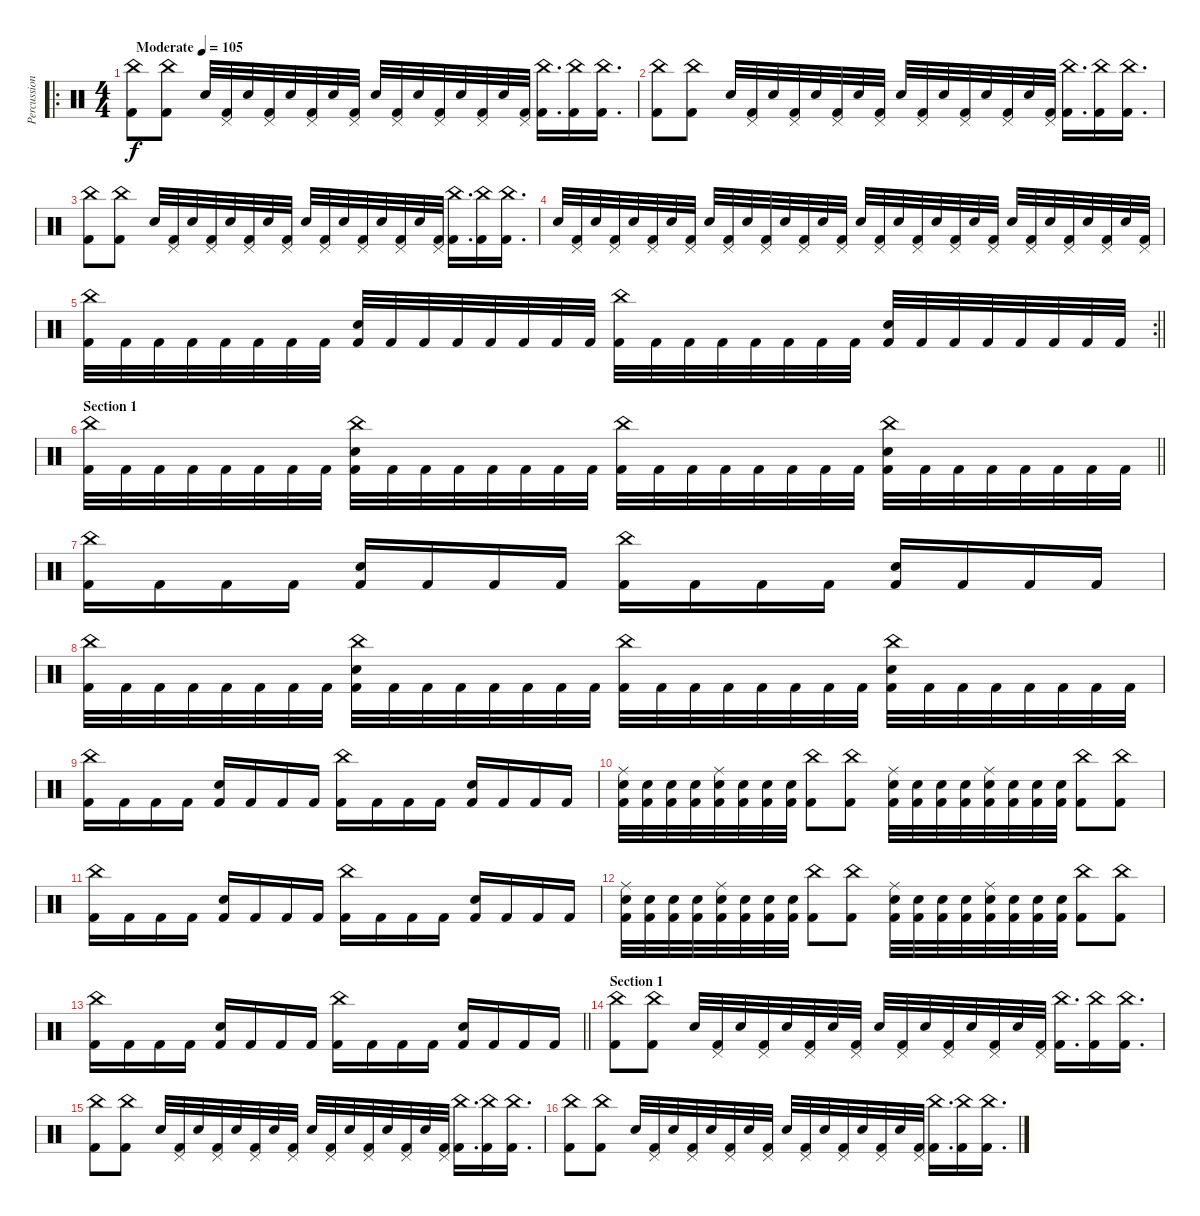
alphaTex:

\track ("Percussions" "Percussion") {instrument percussion}
\staff {score}
\articulation defaults
\ro
\ts (4 4)
\tempo (105 "Moderate")
\clef neutral
\ks c
("China (hit)" "Kick (hit) 2").8{dy f} ("China (hit)" "Kick (hit) 2").8 "Electric Snare (hit)".32 ("Pedal Hi-Hat (hit)" "Kick (hit) 2").32 "Electric Snare (hit)".32 ("Pedal Hi-Hat (hit)" "Kick (hit) 2").32 "Electric Snare (hit)".32 ("Pedal Hi-Hat (hit)" "Kick (hit) 2").32 "Electric Snare (hit)".32 ("Pedal Hi-Hat (hit)" "Kick (hit) 2").32 "Electric Snare (hit)".32 ("Pedal Hi-Hat (hit)" "Kick (hit) 2").32 "Electric Snare (hit)".32 ("Pedal Hi-Hat (hit)" "Kick (hit) 2").32 "Electric Snare (hit)".32 ("Pedal Hi-Hat (hit)" "Kick (hit) 2").32 "Electric Snare (hit)".32 ("Pedal Hi-Hat (hit)" "Kick (hit) 2").32 ("China (hit)" "Kick (hit) 2").16{d} ("China (hit)" "Kick (hit) 2").16 ("China (hit)" "Kick (hit) 2").16{d} |
("China (hit)" "Kick (hit) 2").8 ("China (hit)" "Kick (hit) 2").8 "Electric Snare (hit)".32 ("Pedal Hi-Hat (hit)" "Kick (hit) 2").32 "Electric Snare (hit)".32 ("Pedal Hi-Hat (hit)" "Kick (hit) 2").32 "Electric Snare (hit)".32 ("Pedal Hi-Hat (hit)" "Kick (hit) 2").32 "Electric Snare (hit)".32 ("Pedal Hi-Hat (hit)" "Kick (hit) 2").32 "Electric Snare (hit)".32 ("Pedal Hi-Hat (hit)" "Kick (hit) 2").32 "Electric Snare (hit)".32 ("Pedal Hi-Hat (hit)" "Kick (hit) 2").32 "Electric Snare (hit)".32 ("Pedal Hi-Hat (hit)" "Kick (hit) 2").32 "Electric Snare (hit)".32 ("Pedal Hi-Hat (hit)" "Kick (hit) 2").32 ("China (hit)" "Kick (hit) 2").16{d} ("China (hit)" "Kick (hit) 2").16 ("China (hit)" "Kick (hit) 2").16{d} |
("China (hit)" "Kick (hit) 2").8 ("China (hit)" "Kick (hit) 2").8 "Electric Snare (hit)".32 ("Pedal Hi-Hat (hit)" "Kick (hit) 2").32 "Electric Snare (hit)".32 ("Pedal Hi-Hat (hit)" "Kick (hit) 2").32 "Electric Snare (hit)".32 ("Pedal Hi-Hat (hit)" "Kick (hit) 2").32 "Electric Snare (hit)".32 ("Pedal Hi-Hat (hit)" "Kick (hit) 2").32 "Electric Snare (hit)".32 ("Pedal Hi-Hat (hit)" "Kick (hit) 2").32 "Electric Snare (hit)".32 ("Pedal Hi-Hat (hit)" "Kick (hit) 2").32 "Electric Snare (hit)".32 ("Pedal Hi-Hat (hit)" "Kick (hit) 2").32 "Electric Snare (hit)".32 ("Pedal Hi-Hat (hit)" "Kick (hit) 2").32 ("China (hit)" "Kick (hit) 2").16{d} ("China (hit)" "Kick (hit) 2").16 ("China (hit)" "Kick (hit) 2").16{d} |
"Electric Snare (hit)".32 ("Pedal Hi-Hat (hit)" "Kick (hit) 2").32 "Electric Snare (hit)".32 ("Pedal Hi-Hat (hit)" "Kick (hit) 2").32 "Electric Snare (hit)".32 ("Pedal Hi-Hat (hit)" "Kick (hit) 2").32 "Electric Snare (hit)".32 ("Pedal Hi-Hat (hit)" "Kick (hit) 2").32 "Electric Snare (hit)".32 ("Pedal Hi-Hat (hit)" "Kick (hit) 2").32 "Electric Snare (hit)".32 ("Pedal Hi-Hat (hit)" "Kick (hit) 2").32 "Electric Snare (hit)".32 ("Pedal Hi-Hat (hit)" "Kick (hit) 2").32 "Electric Snare (hit)".32 ("Pedal Hi-Hat (hit)" "Kick (hit) 2").32 "Electric Snare (hit)".32 ("Pedal Hi-Hat (hit)" "Kick (hit) 2").32 "Electric Snare (hit)".32 ("Pedal Hi-Hat (hit)" "Kick (hit) 2").32 "Electric Snare (hit)".32 ("Pedal Hi-Hat (hit)" "Kick (hit) 2").32 "Electric Snare (hit)".32 ("Pedal Hi-Hat (hit)" "Kick (hit) 2").32 "Electric Snare (hit)".32 ("Pedal Hi-Hat (hit)" "Kick (hit) 2").32 "Electric Snare (hit)".32 ("Pedal Hi-Hat (hit)" "Kick (hit) 2").32 "Electric Snare (hit)".32 ("Pedal Hi-Hat (hit)" "Kick (hit) 2").32 "Electric Snare (hit)".32 ("Pedal Hi-Hat (hit)" "Kick (hit) 2").32 |
\rc 2
\barLineRight lightlight
("China (hit)" "Kick (hit) 2").32 "Kick (hit) 2".32 "Kick (hit) 2".32 "Kick (hit) 2".32 "Kick (hit) 2".32 "Kick (hit) 2".32 "Kick (hit) 2".32 "Kick (hit) 2".32 ("Electric Snare (hit)" "Kick (hit) 2").32 "Kick (hit) 2".32 "Kick (hit) 2".32 "Kick (hit) 2".32 "Kick (hit) 2".32 "Kick (hit) 2".32 "Kick (hit) 2".32 "Kick (hit) 2".32 ("China (hit)" "Kick (hit) 2").32 "Kick (hit) 2".32 "Kick (hit) 2".32 "Kick (hit) 2".32 "Kick (hit) 2".32 "Kick (hit) 2".32 "Kick (hit) 2".32 "Kick (hit) 2".32 ("Electric Snare (hit)" "Kick (hit) 2").32 "Kick (hit) 2".32 "Kick (hit) 2".32 "Kick (hit) 2".32 "Kick (hit) 2".32 "Kick (hit) 2".32 "Kick (hit) 2".32 "Kick (hit) 2".32 |
\section ("" "Section 1")
\barLineRight lightlight
("China (hit)" "Kick (hit) 2").32 "Kick (hit) 2".32 "Kick (hit) 2".32 "Kick (hit) 2".32 "Kick (hit) 2".32 "Kick (hit) 2".32 "Kick (hit) 2".32 "Kick (hit) 2".32 ("China (hit)" "Electric Snare (hit)" "Kick (hit) 2").32 "Kick (hit) 2".32 "Kick (hit) 2".32 "Kick (hit) 2".32 "Kick (hit) 2".32 "Kick (hit) 2".32 "Kick (hit) 2".32 "Kick (hit) 2".32 ("China (hit)" "Kick (hit) 2").32 "Kick (hit) 2".32 "Kick (hit) 2".32 "Kick (hit) 2".32 "Kick (hit) 2".32 "Kick (hit) 2".32 "Kick (hit) 2".32 "Kick (hit) 2".32 ("China (hit)" "Electric Snare (hit)" "Kick (hit) 2").32 "Kick (hit) 2".32 "Kick (hit) 2".32 "Kick (hit) 2".32 "Kick (hit) 2".32 "Kick (hit) 2".32 "Kick (hit) 2".32 "Kick (hit) 2".32 |
("China (hit)" "Kick (hit) 2").16 "Kick (hit) 2".16 "Kick (hit) 2".16 "Kick (hit) 2".16 ("Electric Snare (hit)" "Kick (hit) 2").16 "Kick (hit) 2".16 "Kick (hit) 2".16 "Kick (hit) 2".16 ("China (hit)" "Kick (hit) 2").16 "Kick (hit) 2".16 "Kick (hit) 2".16 "Kick (hit) 2".16 ("Electric Snare (hit)" "Kick (hit) 2").16 "Kick (hit) 2".16 "Kick (hit) 2".16 "Kick (hit) 2".16 |
("China (hit)" "Kick (hit) 2").32 "Kick (hit) 2".32 "Kick (hit) 2".32 "Kick (hit) 2".32 "Kick (hit) 2".32 "Kick (hit) 2".32 "Kick (hit) 2".32 "Kick (hit) 2".32 ("China (hit)" "Electric Snare (hit)" "Kick (hit) 2").32 "Kick (hit) 2".32 "Kick (hit) 2".32 "Kick (hit) 2".32 "Kick (hit) 2".32 "Kick (hit) 2".32 "Kick (hit) 2".32 "Kick (hit) 2".32 ("China (hit)" "Kick (hit) 2").32 "Kick (hit) 2".32 "Kick (hit) 2".32 "Kick (hit) 2".32 "Kick (hit) 2".32 "Kick (hit) 2".32 "Kick (hit) 2".32 "Kick (hit) 2".32 ("China (hit)" "Electric Snare (hit)" "Kick (hit) 2").32 "Kick (hit) 2".32 "Kick (hit) 2".32 "Kick (hit) 2".32 "Kick (hit) 2".32 "Kick (hit) 2".32 "Kick (hit) 2".32 "Kick (hit) 2".32 |
("China (hit)" "Kick (hit) 2").16 "Kick (hit) 2".16 "Kick (hit) 2".16 "Kick (hit) 2".16 ("Electric Snare (hit)" "Kick (hit) 2").16 "Kick (hit) 2".16 "Kick (hit) 2".16 "Kick (hit) 2".16 ("China (hit)" "Kick (hit) 2").16 "Kick (hit) 2".16 "Kick (hit) 2".16 "Kick (hit) 2".16 ("Electric Snare (hit)" "Kick (hit) 2").16 "Kick (hit) 2".16 "Kick (hit) 2".16 "Kick (hit) 2".16 |
("Ride (middle)" "Electric Snare (hit)" "Kick (hit) 2").32 ("Electric Snare (hit)" "Kick (hit) 2").32 ("Electric Snare (hit)" "Kick (hit) 2").32 ("Electric Snare (hit)" "Kick (hit) 2").32 ("Ride (middle)" "Electric Snare (hit)" "Kick (hit) 2").32 ("Electric Snare (hit)" "Kick (hit) 2").32 ("Electric Snare (hit)" "Kick (hit) 2").32 ("Electric Snare (hit)" "Kick (hit) 2").32 ("China (hit)" "Kick (hit) 2").8 ("China (hit)" "Kick (hit) 2").8 ("Ride (middle)" "Electric Snare (hit)" "Kick (hit) 2").32 ("Electric Snare (hit)" "Kick (hit) 2").32 ("Electric Snare (hit)" "Kick (hit) 2").32 ("Electric Snare (hit)" "Kick (hit) 2").32 ("Ride (middle)" "Electric Snare (hit)" "Kick (hit) 2").32 ("Electric Snare (hit)" "Kick (hit) 2").32 ("Electric Snare (hit)" "Kick (hit) 2").32 ("Electric Snare (hit)" "Kick (hit) 2").32 ("China (hit)" "Kick (hit) 2").8 ("China (hit)" "Kick (hit) 2").8 |
("China (hit)" "Kick (hit) 2").16 "Kick (hit) 2".16 "Kick (hit) 2".16 "Kick (hit) 2".16 ("Electric Snare (hit)" "Kick (hit) 2").16 "Kick (hit) 2".16 "Kick (hit) 2".16 "Kick (hit) 2".16 ("China (hit)" "Kick (hit) 2").16 "Kick (hit) 2".16 "Kick (hit) 2".16 "Kick (hit) 2".16 ("Electric Snare (hit)" "Kick (hit) 2").16 "Kick (hit) 2".16 "Kick (hit) 2".16 "Kick (hit) 2".16 |
("Ride (middle)" "Electric Snare (hit)" "Kick (hit) 2").32 ("Electric Snare (hit)" "Kick (hit) 2").32 ("Electric Snare (hit)" "Kick (hit) 2").32 ("Electric Snare (hit)" "Kick (hit) 2").32 ("Ride (middle)" "Electric Snare (hit)" "Kick (hit) 2").32 ("Electric Snare (hit)" "Kick (hit) 2").32 ("Electric Snare (hit)" "Kick (hit) 2").32 ("Electric Snare (hit)" "Kick (hit) 2").32 ("China (hit)" "Kick (hit) 2").8 ("China (hit)" "Kick (hit) 2").8 ("Ride (middle)" "Electric Snare (hit)" "Kick (hit) 2").32 ("Electric Snare (hit)" "Kick (hit) 2").32 ("Electric Snare (hit)" "Kick (hit) 2").32 ("Electric Snare (hit)" "Kick (hit) 2").32 ("Ride (middle)" "Electric Snare (hit)" "Kick (hit) 2").32 ("Electric Snare (hit)" "Kick (hit) 2").32 ("Electric Snare (hit)" "Kick (hit) 2").32 ("Electric Snare (hit)" "Kick (hit) 2").32 ("China (hit)" "Kick (hit) 2").8 ("China (hit)" "Kick (hit) 2").8 |
\barLineRight lightlight
("China (hit)" "Kick (hit) 2").16 "Kick (hit) 2".16 "Kick (hit) 2".16 "Kick (hit) 2".16 ("Electric Snare (hit)" "Kick (hit) 2").16 "Kick (hit) 2".16 "Kick (hit) 2".16 "Kick (hit) 2".16 ("China (hit)" "Kick (hit) 2").16 "Kick (hit) 2".16 "Kick (hit) 2".16 "Kick (hit) 2".16 ("Electric Snare (hit)" "Kick (hit) 2").16 "Kick (hit) 2".16 "Kick (hit) 2".16 "Kick (hit) 2".16 |
\section ("" "Section 1")
("China (hit)" "Kick (hit) 2").8 ("China (hit)" "Kick (hit) 2").8 "Electric Snare (hit)".32 ("Pedal Hi-Hat (hit)" "Kick (hit) 2").32 "Electric Snare (hit)".32 ("Pedal Hi-Hat (hit)" "Kick (hit) 2").32 "Electric Snare (hit)".32 ("Pedal Hi-Hat (hit)" "Kick (hit) 2").32 "Electric Snare (hit)".32 ("Pedal Hi-Hat (hit)" "Kick (hit) 2").32 "Electric Snare (hit)".32 ("Pedal Hi-Hat (hit)" "Kick (hit) 2").32 "Electric Snare (hit)".32 ("Pedal Hi-Hat (hit)" "Kick (hit) 2").32 "Electric Snare (hit)".32 ("Pedal Hi-Hat (hit)" "Kick (hit) 2").32 "Electric Snare (hit)".32 ("Pedal Hi-Hat (hit)" "Kick (hit) 2").32 ("China (hit)" "Kick (hit) 2").16{d} ("China (hit)" "Kick (hit) 2").16 ("China (hit)" "Kick (hit) 2").16{d} |
("China (hit)" "Kick (hit) 2").8 ("China (hit)" "Kick (hit) 2").8 "Electric Snare (hit)".32 ("Pedal Hi-Hat (hit)" "Kick (hit) 2").32 "Electric Snare (hit)".32 ("Pedal Hi-Hat (hit)" "Kick (hit) 2").32 "Electric Snare (hit)".32 ("Pedal Hi-Hat (hit)" "Kick (hit) 2").32 "Electric Snare (hit)".32 ("Pedal Hi-Hat (hit)" "Kick (hit) 2").32 "Electric Snare (hit)".32 ("Pedal Hi-Hat (hit)" "Kick (hit) 2").32 "Electric Snare (hit)".32 ("Pedal Hi-Hat (hit)" "Kick (hit) 2").32 "Electric Snare (hit)".32 ("Pedal Hi-Hat (hit)" "Kick (hit) 2").32 "Electric Snare (hit)".32 ("Pedal Hi-Hat (hit)" "Kick (hit) 2").32 ("China (hit)" "Kick (hit) 2").16{d} ("China (hit)" "Kick (hit) 2").16 ("China (hit)" "Kick (hit) 2").16{d} |
("China (hit)" "Kick (hit) 2").8 ("China (hit)" "Kick (hit) 2").8 "Electric Snare (hit)".32 ("Pedal Hi-Hat (hit)" "Kick (hit) 2").32 "Electric Snare (hit)".32 ("Pedal Hi-Hat (hit)" "Kick (hit) 2").32 "Electric Snare (hit)".32 ("Pedal Hi-Hat (hit)" "Kick (hit) 2").32 "Electric Snare (hit)".32 ("Pedal Hi-Hat (hit)" "Kick (hit) 2").32 "Electric Snare (hit)".32 ("Pedal Hi-Hat (hit)" "Kick (hit) 2").32 "Electric Snare (hit)".32 ("Pedal Hi-Hat (hit)" "Kick (hit) 2").32 "Electric Snare (hit)".32 ("Pedal Hi-Hat (hit)" "Kick (hit) 2").32 "Electric Snare (hit)".32 ("Pedal Hi-Hat (hit)" "Kick (hit) 2").32 ("China (hit)" "Kick (hit) 2").16{d} ("China (hit)" "Kick (hit) 2").16 ("China (hit)" "Kick (hit) 2").16{d}
